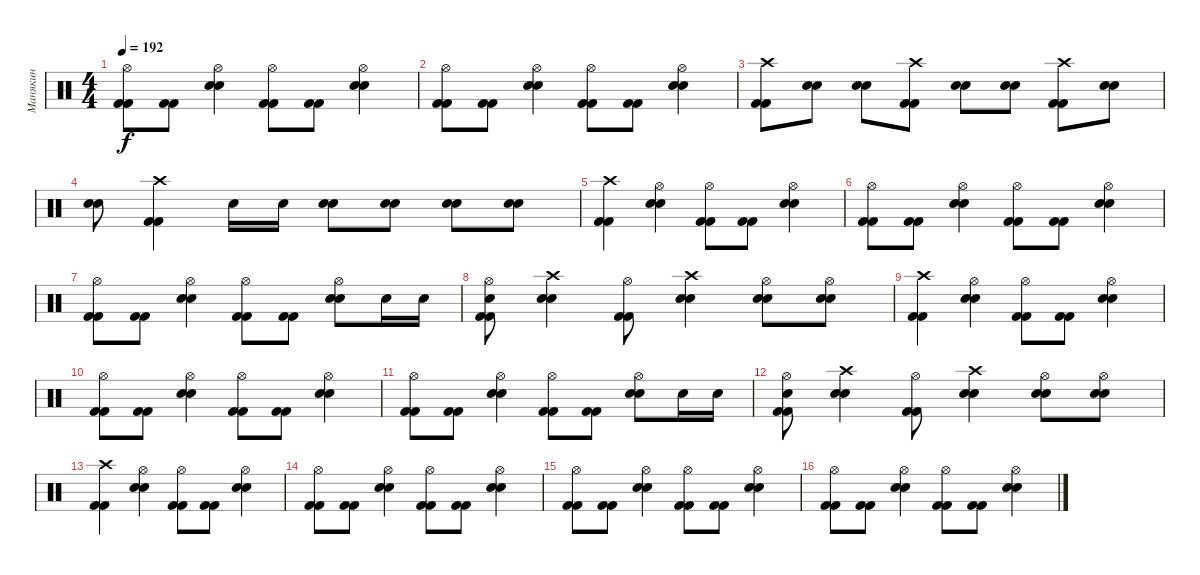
\track ("Манякин" "Манякин") {instrument percussion}
\staff {score}
\articulation defaults
\ts (4 4)
\tempo 192
\clef neutral
\ks c
("Hi-Hat (open)" "Kick (hit) 2" "Kick (hit) 2").8{dy f} ("Kick (hit) 2" "Kick (hit) 2").8 ("Hi-Hat (open)" "Electric Snare (hit)" "Electric Snare (hit)").4 ("Hi-Hat (open)" "Kick (hit) 2" "Kick (hit) 2").8 ("Kick (hit) 2" "Kick (hit) 2").8 ("Hi-Hat (open)" "Electric Snare (hit)" "Electric Snare (hit)").4 |
("Hi-Hat (open)" "Kick (hit) 2" "Kick (hit) 2").8 ("Kick (hit) 2" "Kick (hit) 2").8 ("Hi-Hat (open)" "Electric Snare (hit)" "Electric Snare (hit)").4 ("Hi-Hat (open)" "Kick (hit) 2" "Kick (hit) 2").8 ("Kick (hit) 2" "Kick (hit) 2").8 ("Hi-Hat (open)" "Electric Snare (hit)" "Electric Snare (hit)").4 |
("Crash high (hit)" "Kick (hit) 2" "Kick (hit) 2").8 ("Electric Snare (hit)" "Electric Snare (hit)").8 ("Electric Snare (hit)" "Electric Snare (hit)").8 ("Crash high (hit)" "Kick (hit) 2" "Kick (hit) 2").8 ("Electric Snare (hit)" "Electric Snare (hit)").8 ("Electric Snare (hit)" "Electric Snare (hit)").8 ("Crash high (hit)" "Kick (hit) 2" "Kick (hit) 2").8 ("Electric Snare (hit)" "Electric Snare (hit)").8 |
("Electric Snare (hit)" "Electric Snare (hit)").8 ("Crash high (hit)" "Kick (hit) 2" "Kick (hit) 2").4 "Electric Snare (hit)".16 "Electric Snare (hit)".16 ("Electric Snare (hit)" "Electric Snare (hit)").8 ("Electric Snare (hit)" "Electric Snare (hit)").8 ("Electric Snare (hit)" "Electric Snare (hit)").8 ("Electric Snare (hit)" "Electric Snare (hit)").8 |
("Crash high (hit)" "Kick (hit) 2" "Kick (hit) 2").4 ("Hi-Hat (open)" "Electric Snare (hit)" "Electric Snare (hit)").4 ("Hi-Hat (open)" "Kick (hit) 2" "Kick (hit) 2").8 ("Kick (hit) 2" "Kick (hit) 2").8 ("Hi-Hat (open)" "Electric Snare (hit)" "Electric Snare (hit)").4 |
("Hi-Hat (open)" "Kick (hit) 2" "Kick (hit) 2").8 ("Kick (hit) 2" "Kick (hit) 2").8 ("Hi-Hat (open)" "Electric Snare (hit)" "Electric Snare (hit)").4 ("Hi-Hat (open)" "Kick (hit) 2" "Kick (hit) 2").8 ("Kick (hit) 2" "Kick (hit) 2").8 ("Hi-Hat (open)" "Electric Snare (hit)" "Electric Snare (hit)").4 |
("Hi-Hat (open)" "Kick (hit) 2" "Kick (hit) 2").8 ("Kick (hit) 2" "Kick (hit) 2").8 ("Hi-Hat (open)" "Electric Snare (hit)" "Electric Snare (hit)").4 ("Hi-Hat (open)" "Kick (hit) 2" "Kick (hit) 2").8 ("Kick (hit) 2" "Kick (hit) 2").8 ("Hi-Hat (open)" "Electric Snare (hit)" "Electric Snare (hit)").8 "Electric Snare (hit)".16 "Electric Snare (hit)".16 |
("Hi-Hat (open)" "Electric Snare (hit)" "Kick (hit) 2" "Kick (hit) 2").8 ("Crash high (hit)" "Electric Snare (hit)" "Electric Snare (hit)").4 ("Hi-Hat (open)" "Kick (hit) 2" "Kick (hit) 2").8 ("Crash high (hit)" "Electric Snare (hit)" "Electric Snare (hit)").4 ("Hi-Hat (open)" "Electric Snare (hit)" "Electric Snare (hit)").8 ("Hi-Hat (open)" "Electric Snare (hit)" "Electric Snare (hit)").8 |
("Crash high (hit)" "Kick (hit) 2" "Kick (hit) 2").4 ("Hi-Hat (open)" "Electric Snare (hit)" "Electric Snare (hit)").4 ("Hi-Hat (open)" "Kick (hit) 2" "Kick (hit) 2").8 ("Kick (hit) 2" "Kick (hit) 2").8 ("Hi-Hat (open)" "Electric Snare (hit)" "Electric Snare (hit)").4 |
("Hi-Hat (open)" "Kick (hit) 2" "Kick (hit) 2").8 ("Kick (hit) 2" "Kick (hit) 2").8 ("Hi-Hat (open)" "Electric Snare (hit)" "Electric Snare (hit)").4 ("Hi-Hat (open)" "Kick (hit) 2" "Kick (hit) 2").8 ("Kick (hit) 2" "Kick (hit) 2").8 ("Hi-Hat (open)" "Electric Snare (hit)" "Electric Snare (hit)").4 |
("Hi-Hat (open)" "Kick (hit) 2" "Kick (hit) 2").8 ("Kick (hit) 2" "Kick (hit) 2").8 ("Hi-Hat (open)" "Electric Snare (hit)" "Electric Snare (hit)").4 ("Hi-Hat (open)" "Kick (hit) 2" "Kick (hit) 2").8 ("Kick (hit) 2" "Kick (hit) 2").8 ("Hi-Hat (open)" "Electric Snare (hit)" "Electric Snare (hit)").8 "Electric Snare (hit)".16 "Electric Snare (hit)".16 |
("Hi-Hat (open)" "Electric Snare (hit)" "Kick (hit) 2" "Kick (hit) 2").8 ("Crash high (hit)" "Electric Snare (hit)" "Electric Snare (hit)").4 ("Hi-Hat (open)" "Kick (hit) 2" "Kick (hit) 2").8 ("Crash high (hit)" "Electric Snare (hit)" "Electric Snare (hit)").4 ("Hi-Hat (open)" "Electric Snare (hit)" "Electric Snare (hit)").8 ("Hi-Hat (open)" "Electric Snare (hit)" "Electric Snare (hit)").8 |
("Crash high (hit)" "Kick (hit) 2" "Kick (hit) 2").4 ("Hi-Hat (open)" "Electric Snare (hit)" "Electric Snare (hit)").4 ("Hi-Hat (open)" "Kick (hit) 2" "Kick (hit) 2").8 ("Kick (hit) 2" "Kick (hit) 2").8 ("Hi-Hat (open)" "Electric Snare (hit)" "Electric Snare (hit)").4 |
("Hi-Hat (open)" "Kick (hit) 2" "Kick (hit) 2").8 ("Kick (hit) 2" "Kick (hit) 2").8 ("Hi-Hat (open)" "Electric Snare (hit)" "Electric Snare (hit)").4 ("Hi-Hat (open)" "Kick (hit) 2" "Kick (hit) 2").8 ("Kick (hit) 2" "Kick (hit) 2").8 ("Hi-Hat (open)" "Electric Snare (hit)" "Electric Snare (hit)").4 |
("Hi-Hat (open)" "Kick (hit) 2" "Kick (hit) 2").8 ("Kick (hit) 2" "Kick (hit) 2").8 ("Hi-Hat (open)" "Electric Snare (hit)" "Electric Snare (hit)").4 ("Hi-Hat (open)" "Kick (hit) 2" "Kick (hit) 2").8 ("Kick (hit) 2" "Kick (hit) 2").8 ("Hi-Hat (open)" "Electric Snare (hit)" "Electric Snare (hit)").4 |
("Hi-Hat (open)" "Kick (hit) 2" "Kick (hit) 2").8 ("Kick (hit) 2" "Kick (hit) 2").8 ("Hi-Hat (open)" "Electric Snare (hit)" "Electric Snare (hit)").4 ("Hi-Hat (open)" "Kick (hit) 2" "Kick (hit) 2").8 ("Kick (hit) 2" "Kick (hit) 2").8 ("Hi-Hat (open)" "Electric Snare (hit)" "Electric Snare (hit)").4
